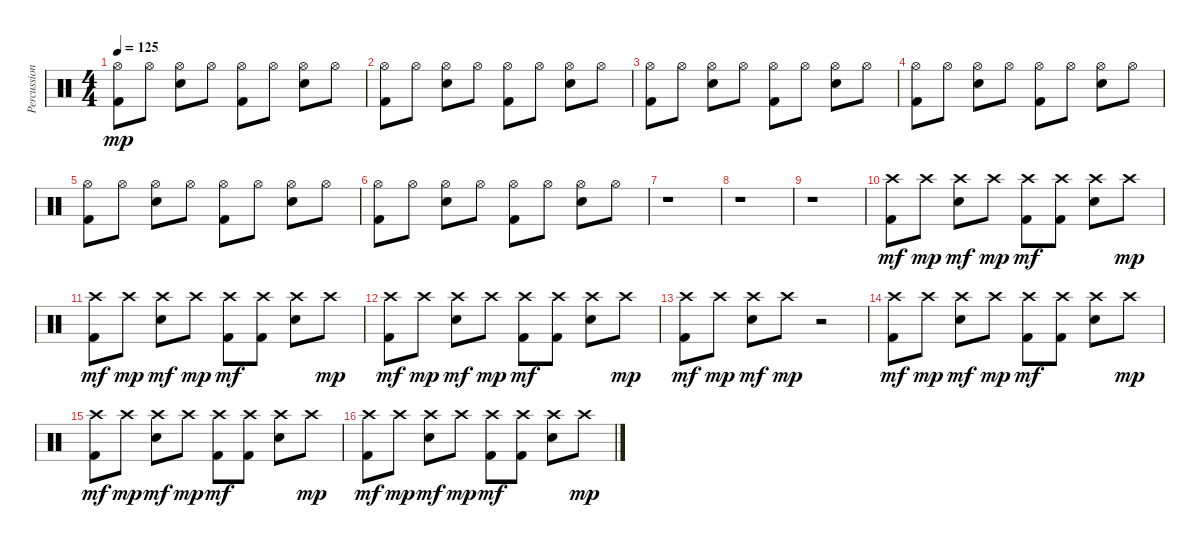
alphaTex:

\track ("Percussion" "Percussion") {instrument percussion}
\staff {score}
\articulation defaults
\ts (4 4)
\tempo 125
\clef neutral
\ks c
("Hi-Hat (open)" "Kick (hit) 2").8{dy mp} "Hi-Hat (open)".8 ("Hi-Hat (open)" "Electric Snare (hit)").8 "Hi-Hat (open)".8 ("Hi-Hat (open)" "Kick (hit) 2").8 "Hi-Hat (open)".8 ("Hi-Hat (open)" "Electric Snare (hit)").8 "Hi-Hat (open)".8 |
("Hi-Hat (open)" "Kick (hit) 2").8 "Hi-Hat (open)".8 ("Hi-Hat (open)" "Electric Snare (hit)").8 "Hi-Hat (open)".8 ("Hi-Hat (open)" "Kick (hit) 2").8 "Hi-Hat (open)".8 ("Hi-Hat (open)" "Electric Snare (hit)").8 "Hi-Hat (open)".8 |
("Hi-Hat (open)" "Kick (hit) 2").8 "Hi-Hat (open)".8 ("Hi-Hat (open)" "Electric Snare (hit)").8 "Hi-Hat (open)".8 ("Hi-Hat (open)" "Kick (hit) 2").8 "Hi-Hat (open)".8 ("Hi-Hat (open)" "Electric Snare (hit)").8 "Hi-Hat (open)".8 |
("Hi-Hat (open)" "Kick (hit) 2").8 "Hi-Hat (open)".8 ("Hi-Hat (open)" "Electric Snare (hit)").8 "Hi-Hat (open)".8 ("Hi-Hat (open)" "Kick (hit) 2").8 "Hi-Hat (open)".8 ("Hi-Hat (open)" "Electric Snare (hit)").8 "Hi-Hat (open)".8 |
("Hi-Hat (open)" "Kick (hit) 2").8 "Hi-Hat (open)".8 ("Hi-Hat (open)" "Electric Snare (hit)").8 "Hi-Hat (open)".8 ("Hi-Hat (open)" "Kick (hit) 2").8 "Hi-Hat (open)".8 ("Hi-Hat (open)" "Electric Snare (hit)").8 "Hi-Hat (open)".8 |
("Hi-Hat (open)" "Kick (hit) 2").8 "Hi-Hat (open)".8 ("Hi-Hat (open)" "Electric Snare (hit)").8 "Hi-Hat (open)".8 ("Hi-Hat (open)" "Kick (hit) 2").8 "Hi-Hat (open)".8 ("Hi-Hat (open)" "Electric Snare (hit)").8 "Hi-Hat (open)".8 |
r.1 |
r.1 |
r.1 |
("Crash high (hit)" "Kick (hit) 2").8{dy mf} "Crash high (hit)".8{dy mp} ("Crash high (hit)" "Electric Snare (hit)").8{dy mf} "Crash high (hit)".8{dy mp} ("Crash high (hit)" "Kick (hit) 2").8{dy mf} ("Crash high (hit)" "Kick (hit) 2").8 ("Crash high (hit)" "Electric Snare (hit)").8 "Crash high (hit)".8{dy mp} |
("Crash high (hit)" "Kick (hit) 2").8{dy mf} "Crash high (hit)".8{dy mp} ("Crash high (hit)" "Electric Snare (hit)").8{dy mf} "Crash high (hit)".8{dy mp} ("Crash high (hit)" "Kick (hit) 2").8{dy mf} ("Crash high (hit)" "Kick (hit) 2").8 ("Crash high (hit)" "Electric Snare (hit)").8 "Crash high (hit)".8{dy mp} |
("Crash high (hit)" "Kick (hit) 2").8{dy mf} "Crash high (hit)".8{dy mp} ("Crash high (hit)" "Electric Snare (hit)").8{dy mf} "Crash high (hit)".8{dy mp} ("Crash high (hit)" "Kick (hit) 2").8{dy mf} ("Crash high (hit)" "Kick (hit) 2").8 ("Crash high (hit)" "Electric Snare (hit)").8 "Crash high (hit)".8{dy mp} |
("Crash high (hit)" "Kick (hit) 2").8{dy mf} "Crash high (hit)".8{dy mp} ("Crash high (hit)" "Electric Snare (hit)").8{dy mf} "Crash high (hit)".8{dy mp} r.2 |
("Crash high (hit)" "Kick (hit) 2").8{dy mf} "Crash high (hit)".8{dy mp} ("Crash high (hit)" "Electric Snare (hit)").8{dy mf} "Crash high (hit)".8{dy mp} ("Crash high (hit)" "Kick (hit) 2").8{dy mf} ("Crash high (hit)" "Kick (hit) 2").8 ("Crash high (hit)" "Electric Snare (hit)").8 "Crash high (hit)".8{dy mp} |
("Crash high (hit)" "Kick (hit) 2").8{dy mf} "Crash high (hit)".8{dy mp} ("Crash high (hit)" "Electric Snare (hit)").8{dy mf} "Crash high (hit)".8{dy mp} ("Crash high (hit)" "Kick (hit) 2").8{dy mf} ("Crash high (hit)" "Kick (hit) 2").8 ("Crash high (hit)" "Electric Snare (hit)").8 "Crash high (hit)".8{dy mp} |
("Crash high (hit)" "Kick (hit) 2").8{dy mf} "Crash high (hit)".8{dy mp} ("Crash high (hit)" "Electric Snare (hit)").8{dy mf} "Crash high (hit)".8{dy mp} ("Crash high (hit)" "Kick (hit) 2").8{dy mf} ("Crash high (hit)" "Kick (hit) 2").8 ("Crash high (hit)" "Electric Snare (hit)").8 "Crash high (hit)".8{dy mp}
